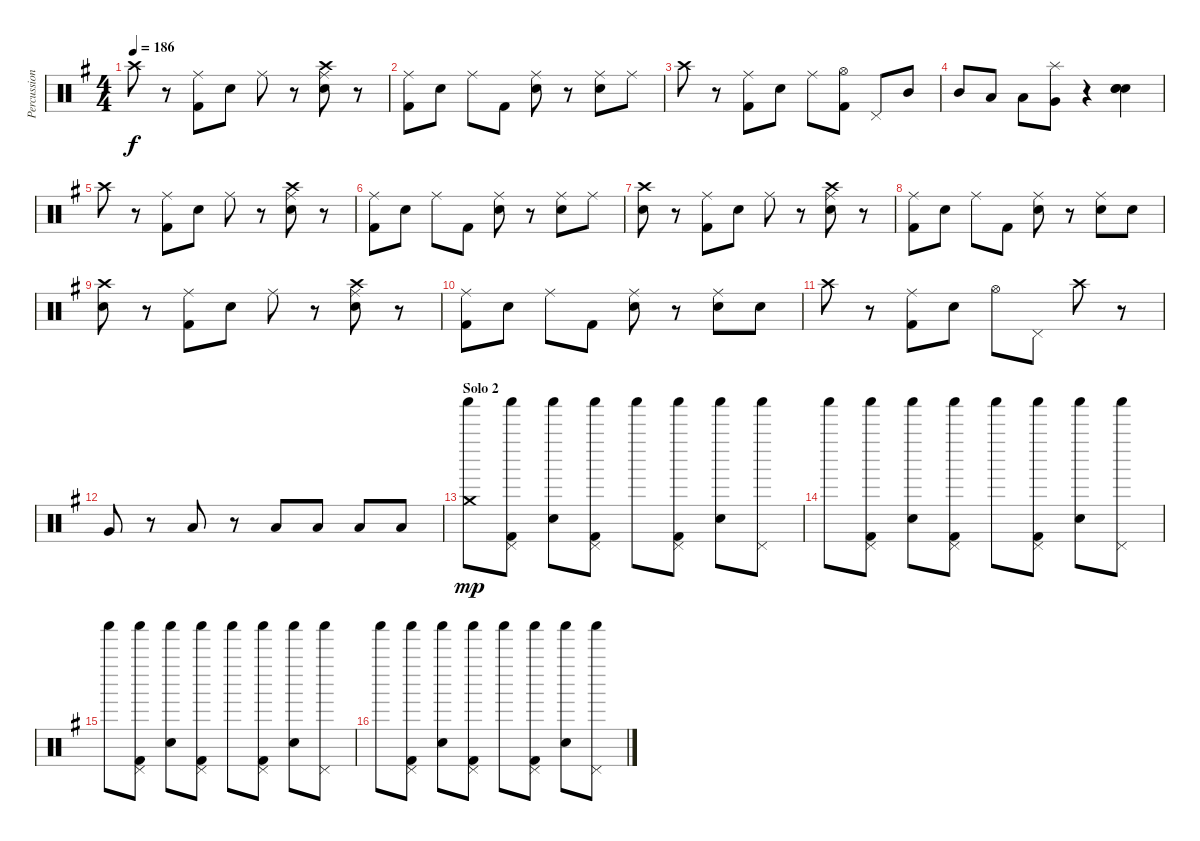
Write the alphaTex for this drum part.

\track ("Percussion" "Percussion") {instrument percussion}
\staff {score}
\articulation defaults
\ts (4 4)
\tempo 186
\clef neutral
\ks g "Crash high (hit)".8{dy f}
r.8 ("Ride (middle)" "Kick (hit) 2").8 "Electric Snare (hit)".8 "Ride (middle)".8 r.8 ("Ride (middle)" "Crash high (hit)" "Electric Snare (hit)").8 r.8 |
("Ride (middle)" "Kick (hit) 2").8 "Electric Snare (hit)".8 "Ride (middle)".8 "Kick (hit) 2".8 ("Ride (middle)" "Electric Snare (hit)").8 r.8 ("Ride (middle)" "Electric Snare (hit)").8 "Ride (middle)".8 |
"Crash high (hit)".8 r.8 ("Ride (middle)" "Kick (hit) 2").8 "Electric Snare (hit)".8 "Ride (middle)".8 ("Hi-Hat (open)" "Kick (hit) 2").8 "Pedal Hi-Hat (hit)".8 "Mid Tom (hit)".8 |
"Mid Tom (hit)".8 "Low Tom (hit)".8 "Low Tom (hit)".8 ("Splash (hit)" "Very Low Tom (hit)").8 r.4 ("Hand Clap (hit)" "Hand Clap (hit)" "Hand Clap (hit)").4 |
"Crash high (hit)".8 r.8 ("Ride (middle)" "Kick (hit) 2").8 "Electric Snare (hit)".8 "Ride (middle)".8 r.8 ("Ride (middle)" "Crash high (hit)" "Electric Snare (hit)").8 r.8 |
("Ride (middle)" "Kick (hit) 2").8 "Electric Snare (hit)".8 "Ride (middle)".8 "Kick (hit) 2".8 ("Ride (middle)" "Electric Snare (hit)").8 r.8 ("Ride (middle)" "Electric Snare (hit)").8 "Ride (middle)".8 |
("Crash high (hit)" "Electric Snare (hit)").8 r.8 ("Ride (middle)" "Kick (hit) 2").8 "Electric Snare (hit)".8 "Ride (middle)".8 r.8 ("Ride (middle)" "Crash high (hit)" "Electric Snare (hit)").8 r.8 |
("Ride (middle)" "Kick (hit) 2").8 "Electric Snare (hit)".8 "Ride (middle)".8 "Kick (hit) 2".8 ("Ride (middle)" "Electric Snare (hit)").8 r.8 ("Ride (middle)" "Electric Snare (hit)").8 "Electric Snare (hit)".8 |
("Crash high (hit)" "Electric Snare (hit)").8 r.8 ("Ride (middle)" "Kick (hit) 2").8 "Electric Snare (hit)".8 "Ride (middle)".8 r.8 ("Ride (middle)" "Crash high (hit)" "Electric Snare (hit)").8 r.8 |
("Ride (middle)" "Kick (hit) 2").8 "Electric Snare (hit)".8 "Ride (middle)".8 "Kick (hit) 2".8 ("Ride (middle)" "Electric Snare (hit)").8 r.8 ("Ride (middle)" "Electric Snare (hit)").8 "Electric Snare (hit)".8 |
"Crash high (hit)".8 r.8 ("Ride (middle)" "Kick (hit) 2").8 "Electric Snare (hit)".8 "Hi-Hat (open)".8 "Pedal Hi-Hat (hit)".8 "Crash high (hit)".8 r.8 |
"Very Low Tom (hit)".8 r.8 "Low Tom (hit)".8 r.8 "Low Floor Tom (hit)".8 "Low Floor Tom (hit)".8 "Low Floor Tom (hit)".8 "Low Floor Tom (hit)".8 |
\section ("" "Solo 2")
("Shaker (hit)" "Crash medium (hit)").8{dy mp} ("Shaker (hit)" "Pedal Hi-Hat (hit)" "Kick (hit) 2").8 ("Shaker (hit)" "Electric Snare (hit)").8 ("Shaker (hit)" "Pedal Hi-Hat (hit)" "Kick (hit) 2").8 "Shaker (hit)".8 ("Shaker (hit)" "Pedal Hi-Hat (hit)" "Kick (hit) 2").8 ("Shaker (hit)" "Electric Snare (hit)").8 ("Shaker (hit)" "Pedal Hi-Hat (hit)").8 |
"Shaker (hit)".8 ("Shaker (hit)" "Pedal Hi-Hat (hit)" "Kick (hit) 2").8 ("Shaker (hit)" "Electric Snare (hit)").8 ("Shaker (hit)" "Pedal Hi-Hat (hit)" "Kick (hit) 2").8 "Shaker (hit)".8 ("Shaker (hit)" "Pedal Hi-Hat (hit)" "Kick (hit) 2").8 ("Shaker (hit)" "Electric Snare (hit)").8 ("Shaker (hit)" "Pedal Hi-Hat (hit)").8 |
"Shaker (hit)".8 ("Shaker (hit)" "Pedal Hi-Hat (hit)" "Kick (hit) 2").8 ("Shaker (hit)" "Electric Snare (hit)").8 ("Shaker (hit)" "Pedal Hi-Hat (hit)" "Kick (hit) 2").8 "Shaker (hit)".8 ("Shaker (hit)" "Pedal Hi-Hat (hit)" "Kick (hit) 2").8 ("Shaker (hit)" "Electric Snare (hit)").8 ("Shaker (hit)" "Pedal Hi-Hat (hit)").8 |
"Shaker (hit)".8 ("Shaker (hit)" "Pedal Hi-Hat (hit)" "Kick (hit) 2").8 ("Shaker (hit)" "Electric Snare (hit)").8 ("Shaker (hit)" "Pedal Hi-Hat (hit)" "Kick (hit) 2").8 "Shaker (hit)".8 ("Shaker (hit)" "Pedal Hi-Hat (hit)" "Kick (hit) 2").8 ("Shaker (hit)" "Electric Snare (hit)").8 ("Shaker (hit)" "Pedal Hi-Hat (hit)").8
